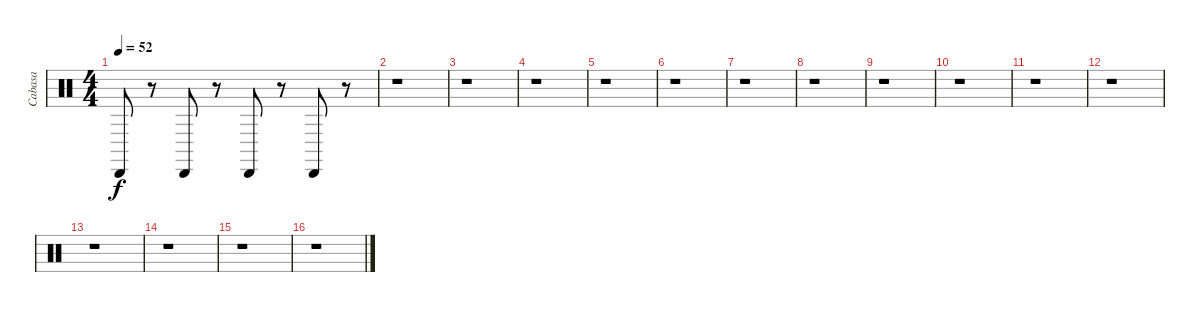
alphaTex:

\track ("Cabasa" "Cabasa") {instrument percussion}
\staff {score}
\articulation defaults
\ts (4 4)
\tempo 52
\clef neutral
\ks c "Cabasa (hit)".8{dy f}
r.8 "Cabasa (hit)".8 r.8 "Cabasa (hit)".8 r.8 "Cabasa (hit)".8 r.8 |
r.1 |
r.1 |
r.1 |
r.1 |
r.1 |
r.1 |
r.1 |
r.1 |
r.1 |
r.1 |
r.1 |
r.1 |
r.1 |
r.1 |
r.1
